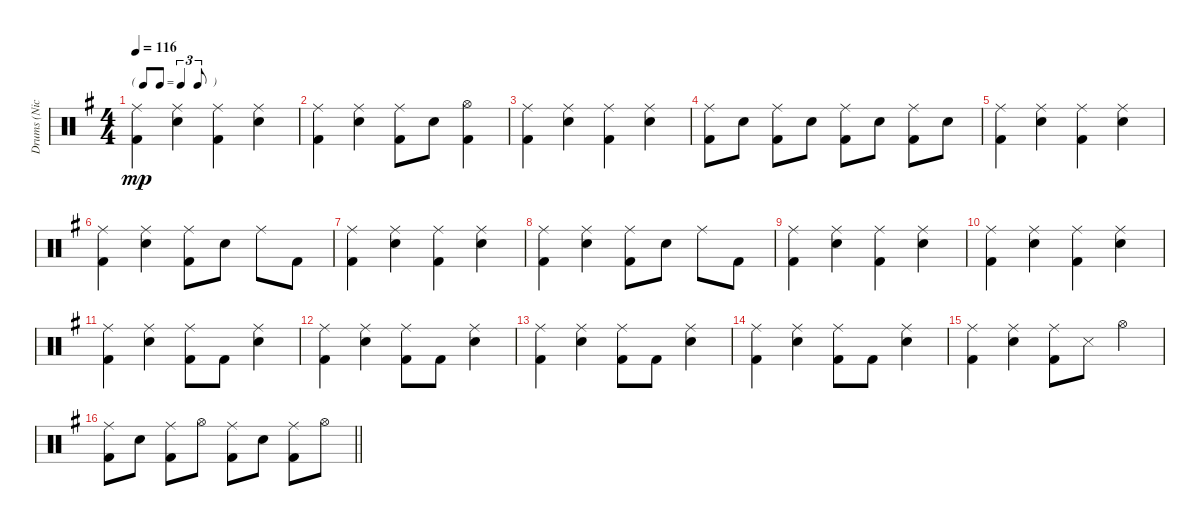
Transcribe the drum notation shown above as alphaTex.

\track ("Drums (Nick Mason)" "Drums (Nic") {instrument percussion}
\staff {score}
\articulation defaults
\ts (4 4)
\tf triplet8th
\tempo 116
\clef neutral
\ks g
("Ride (middle)" "Kick (hit) 2").4{dy mp} ("Ride (middle)" "Snare (hit) 2").4 ("Ride (middle)" "Kick (hit) 2").4 ("Ride (middle)" "Snare (hit) 2").4 |
("Ride (middle)" "Kick (hit) 2").4 ("Ride (middle)" "Snare (hit) 2").4 ("Ride (middle)" "Kick (hit) 2").8 "Snare (hit) 2".8 ("Hi-Hat (open)" "Kick (hit) 2").4 |
("Ride (middle)" "Kick (hit) 2").4 ("Ride (middle)" "Snare (hit) 2").4 ("Ride (middle)" "Kick (hit) 2").4 ("Ride (middle)" "Snare (hit) 2").4 |
("Ride (middle)" "Kick (hit) 2").8 "Snare (hit) 2".8 ("Ride (middle)" "Kick (hit) 2").8 "Snare (hit) 2".8 ("Ride (middle)" "Kick (hit) 2").8 "Snare (hit) 2".8 ("Ride (middle)" "Kick (hit) 2").8 "Snare (hit) 2".8 |
("Ride (middle)" "Kick (hit) 2").4 ("Ride (middle)" "Snare (hit) 2").4 ("Ride (middle)" "Kick (hit) 2").4 ("Ride (middle)" "Snare (hit) 2").4 |
("Ride (middle)" "Kick (hit) 2").4 ("Ride (middle)" "Snare (hit) 2").4 ("Ride (middle)" "Kick (hit) 2").8 "Snare (hit) 2".8 "Ride (middle)".8 "Kick (hit) 2".8 |
("Ride (middle)" "Kick (hit) 2").4 ("Ride (middle)" "Snare (hit) 2").4 ("Ride (middle)" "Kick (hit) 2").4 ("Ride (middle)" "Snare (hit) 2").4 |
("Ride (middle)" "Kick (hit) 2").4 ("Ride (middle)" "Snare (hit) 2").4 ("Ride (middle)" "Kick (hit) 2").8 "Snare (hit) 2".8 "Ride (middle)".8 "Kick (hit) 2".8 |
("Ride (middle)" "Kick (hit) 2").4 ("Ride (middle)" "Snare (hit) 2").4 ("Ride (middle)" "Kick (hit) 2").4 ("Ride (middle)" "Snare (hit) 2").4 |
("Ride (middle)" "Kick (hit) 2").4 ("Ride (middle)" "Snare (hit) 2").4 ("Ride (middle)" "Kick (hit) 2").4 ("Ride (middle)" "Snare (hit) 2").4 |
("Ride (middle)" "Kick (hit) 2").4 ("Ride (middle)" "Snare (hit) 2").4 ("Ride (middle)" "Kick (hit) 2").8 "Kick (hit) 2".8 ("Ride (middle)" "Snare (hit) 2").4 |
("Ride (middle)" "Kick (hit) 2").4 ("Ride (middle)" "Snare (hit) 2").4 ("Ride (middle)" "Kick (hit) 2").8 "Kick (hit) 2".8 ("Ride (middle)" "Snare (hit) 2").4 |
("Ride (middle)" "Kick (hit) 2").4 ("Ride (middle)" "Snare (hit) 2").4 ("Ride (middle)" "Kick (hit) 2").8 "Kick (hit) 2".8 ("Ride (middle)" "Snare (hit) 2").4 |
("Ride (middle)" "Kick (hit) 2").4 ("Ride (middle)" "Snare (hit) 2").4 ("Ride (middle)" "Kick (hit) 2").8 "Kick (hit) 2".8 ("Ride (middle)" "Snare (hit) 2").4 |
("Ride (middle)" "Kick (hit) 2").4 ("Ride (middle)" "Snare (hit) 2").4 ("Ride (middle)" "Kick (hit) 2").8 "Snare (side stick) 3".8 "Hi-Hat (open)".4 |
\barLineRight lightlight
("Ride (middle)" "Kick (hit) 2").8 "Snare (hit) 2".8 ("Ride (middle)" "Kick (hit) 2").8 "Hi-Hat (open)".8 ("Ride (middle)" "Kick (hit) 2").8 "Snare (hit) 2".8 ("Ride (middle)" "Kick (hit) 2").8 "Hi-Hat (open)".8
